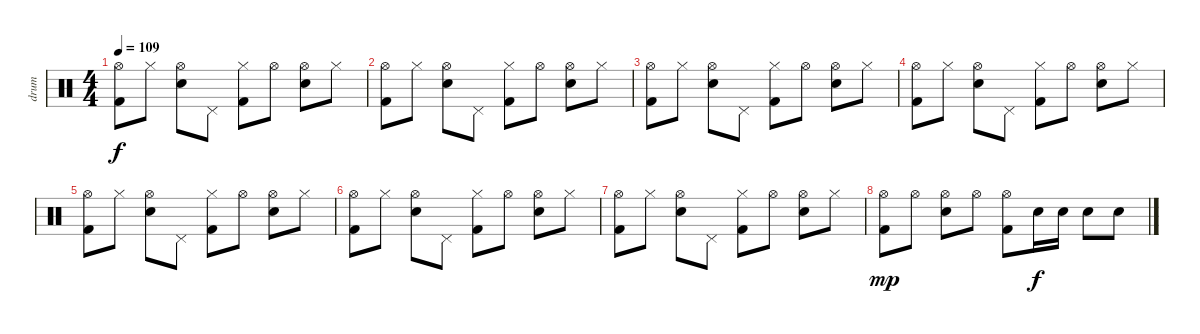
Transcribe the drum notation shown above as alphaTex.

\track ("drum" "drum") {instrument percussion}
\staff {score}
\articulation defaults
\ts (4 4)
\tempo 109
\clef neutral
\ks c
("Hi-Hat (open)" "Kick (hit) 2").8{dy f} "Hi-Hat (closed)".8 ("Hi-Hat (open)" "Electric Snare (hit)").8 "Pedal Hi-Hat (hit)".8 ("Hi-Hat (closed)" "Kick (hit) 2").8 "Hi-Hat (open)".8 ("Hi-Hat (open)" "Electric Snare (hit)").8 "Hi-Hat (closed)".8 |
("Hi-Hat (open)" "Kick (hit) 2").8 "Hi-Hat (closed)".8 ("Hi-Hat (open)" "Electric Snare (hit)").8 "Pedal Hi-Hat (hit)".8 ("Hi-Hat (closed)" "Kick (hit) 2").8 "Hi-Hat (open)".8 ("Hi-Hat (open)" "Electric Snare (hit)").8 "Hi-Hat (closed)".8 |
("Hi-Hat (open)" "Kick (hit) 2").8 "Hi-Hat (closed)".8 ("Hi-Hat (open)" "Electric Snare (hit)").8 "Pedal Hi-Hat (hit)".8 ("Hi-Hat (closed)" "Kick (hit) 2").8 "Hi-Hat (open)".8 ("Hi-Hat (open)" "Electric Snare (hit)").8 "Hi-Hat (closed)".8 |
("Hi-Hat (open)" "Kick (hit) 2").8 "Hi-Hat (closed)".8 ("Hi-Hat (open)" "Electric Snare (hit)").8 "Pedal Hi-Hat (hit)".8 ("Hi-Hat (closed)" "Kick (hit) 2").8 "Hi-Hat (open)".8 ("Hi-Hat (open)" "Electric Snare (hit)").8 "Hi-Hat (closed)".8 |
("Hi-Hat (open)" "Kick (hit) 2").8 "Hi-Hat (closed)".8 ("Hi-Hat (open)" "Electric Snare (hit)").8 "Pedal Hi-Hat (hit)".8 ("Hi-Hat (closed)" "Kick (hit) 2").8 "Hi-Hat (open)".8 ("Hi-Hat (open)" "Electric Snare (hit)").8 "Hi-Hat (closed)".8 |
("Hi-Hat (open)" "Kick (hit) 2").8 "Hi-Hat (closed)".8 ("Hi-Hat (open)" "Electric Snare (hit)").8 "Pedal Hi-Hat (hit)".8 ("Hi-Hat (closed)" "Kick (hit) 2").8 "Hi-Hat (open)".8 ("Hi-Hat (open)" "Electric Snare (hit)").8 "Hi-Hat (closed)".8 |
("Hi-Hat (open)" "Kick (hit) 2").8 "Hi-Hat (closed)".8 ("Hi-Hat (open)" "Electric Snare (hit)").8 "Pedal Hi-Hat (hit)".8 ("Hi-Hat (closed)" "Kick (hit) 2").8 "Hi-Hat (open)".8 ("Hi-Hat (open)" "Electric Snare (hit)").8 "Hi-Hat (closed)".8 |
("Hi-Hat (open)" "Kick (hit) 2").8{dy mp} "Hi-Hat (open)".8 ("Hi-Hat (open)" "Electric Snare (hit)").8 "Hi-Hat (open)".8 ("Hi-Hat (open)" "Kick (hit) 2").8 "Electric Snare (hit)".16{dy f} "Electric Snare (hit)".16 "Electric Snare (hit)".8 "Electric Snare (hit)".8
